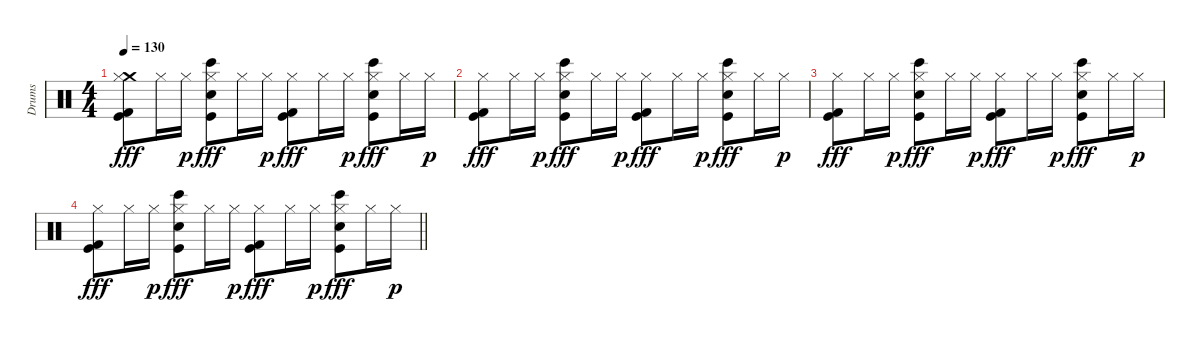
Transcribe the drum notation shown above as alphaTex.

\track ("Drums" "Drums") {instrument percussion}
\staff {score}
\articulation defaults
\ts (4 4)
\tempo 130
\clef neutral
\ks c
("Crash medium (hit)" "Hi-Hat (closed)" "Kick (hit) 2" "Kick (hit)").8{dy fff} "Hi-Hat (closed)".16 "Hi-Hat (closed)".16{dy p} ("Bongo High (hit)" "Hi-Hat (closed)" "Snare (hit) 2" "Kick (hit)").8{dy fff} "Hi-Hat (closed)".16 "Hi-Hat (closed)".16{dy p} ("Hi-Hat (closed)" "Kick (hit) 2" "Kick (hit)").8{dy fff} "Hi-Hat (closed)".16 "Hi-Hat (closed)".16{dy p} ("Bongo High (hit)" "Hi-Hat (closed)" "Snare (hit) 2" "Kick (hit)").8{dy fff} "Hi-Hat (closed)".16 "Hi-Hat (closed)".16{dy p} |
("Hi-Hat (closed)" "Kick (hit) 2" "Kick (hit)").8{dy fff} "Hi-Hat (closed)".16 "Hi-Hat (closed)".16{dy p} ("Bongo High (hit)" "Hi-Hat (closed)" "Snare (hit) 2" "Kick (hit)").8{dy fff} "Hi-Hat (closed)".16 "Hi-Hat (closed)".16{dy p} ("Hi-Hat (closed)" "Kick (hit) 2" "Kick (hit)").8{dy fff} "Hi-Hat (closed)".16 "Hi-Hat (closed)".16{dy p} ("Bongo High (hit)" "Hi-Hat (closed)" "Snare (hit) 2" "Kick (hit)").8{dy fff} "Hi-Hat (closed)".16 "Hi-Hat (closed)".16{dy p} |
("Hi-Hat (closed)" "Kick (hit) 2" "Kick (hit)").8{dy fff} "Hi-Hat (closed)".16 "Hi-Hat (closed)".16{dy p} ("Bongo High (hit)" "Hi-Hat (closed)" "Snare (hit) 2" "Kick (hit)").8{dy fff} "Hi-Hat (closed)".16 "Hi-Hat (closed)".16{dy p} ("Hi-Hat (closed)" "Kick (hit) 2" "Kick (hit)").8{dy fff} "Hi-Hat (closed)".16 "Hi-Hat (closed)".16{dy p} ("Bongo High (hit)" "Hi-Hat (closed)" "Snare (hit) 2" "Kick (hit)").8{dy fff} "Hi-Hat (closed)".16 "Hi-Hat (closed)".16{dy p} |
\barLineRight lightlight
("Hi-Hat (closed)" "Kick (hit) 2" "Kick (hit)").8{dy fff} "Hi-Hat (closed)".16 "Hi-Hat (closed)".16{dy p} ("Bongo High (hit)" "Hi-Hat (closed)" "Snare (hit) 2" "Kick (hit)").8{dy fff} "Hi-Hat (closed)".16 "Hi-Hat (closed)".16{dy p} ("Hi-Hat (closed)" "Kick (hit) 2" "Kick (hit)").8{dy fff} "Hi-Hat (closed)".16 "Hi-Hat (closed)".16{dy p} ("Bongo High (hit)" "Hi-Hat (closed)" "Snare (hit) 2" "Kick (hit)").8{dy fff} "Hi-Hat (closed)".16 "Hi-Hat (closed)".16{dy p}
